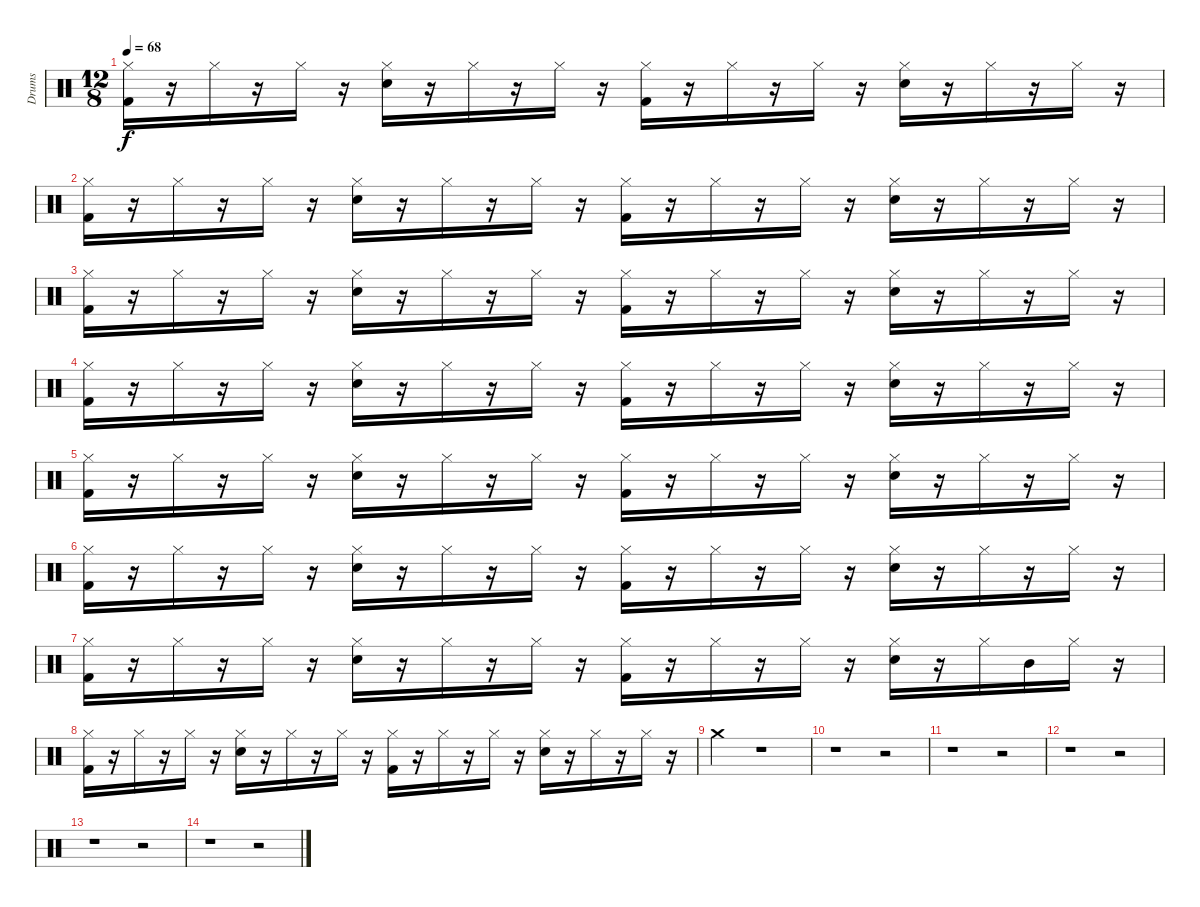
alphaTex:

\track ("Drums" "Drums") {instrument percussion}
\staff {score}
\articulation defaults
\ts (12 8)
\tempo 68
\clef neutral
\ks c
("Hi-Hat (closed)" "Kick (hit) 2").16{dy f} r.16 "Hi-Hat (closed)".16 r.16 "Hi-Hat (closed)".16 r.16 ("Hi-Hat (closed)" "Snare (hit) 2").16 r.16 "Hi-Hat (closed)".16 r.16 "Hi-Hat (closed)".16 r.16 ("Hi-Hat (closed)" "Kick (hit) 2").16 r.16 "Hi-Hat (closed)".16 r.16 "Hi-Hat (closed)".16 r.16 ("Hi-Hat (closed)" "Snare (hit) 2").16 r.16 "Hi-Hat (closed)".16 r.16 "Hi-Hat (closed)".16 r.16 |
("Hi-Hat (closed)" "Kick (hit) 2").16 r.16 "Hi-Hat (closed)".16 r.16 "Hi-Hat (closed)".16 r.16 ("Hi-Hat (closed)" "Snare (hit) 2").16 r.16 "Hi-Hat (closed)".16 r.16 "Hi-Hat (closed)".16 r.16 ("Hi-Hat (closed)" "Kick (hit) 2").16 r.16 "Hi-Hat (closed)".16 r.16 "Hi-Hat (closed)".16 r.16 ("Hi-Hat (closed)" "Snare (hit) 2").16 r.16 "Hi-Hat (closed)".16 r.16 "Hi-Hat (closed)".16 r.16 |
("Hi-Hat (closed)" "Kick (hit) 2").16 r.16 "Hi-Hat (closed)".16 r.16 "Hi-Hat (closed)".16 r.16 ("Hi-Hat (closed)" "Snare (hit) 2").16 r.16 "Hi-Hat (closed)".16 r.16 "Hi-Hat (closed)".16 r.16 ("Hi-Hat (closed)" "Kick (hit) 2").16 r.16 "Hi-Hat (closed)".16 r.16 "Hi-Hat (closed)".16 r.16 ("Hi-Hat (closed)" "Snare (hit) 2").16 r.16 "Hi-Hat (closed)".16 r.16 "Hi-Hat (closed)".16 r.16 |
("Hi-Hat (closed)" "Kick (hit) 2").16 r.16 "Hi-Hat (closed)".16 r.16 "Hi-Hat (closed)".16 r.16 ("Hi-Hat (closed)" "Snare (hit) 2").16 r.16 "Hi-Hat (closed)".16 r.16 "Hi-Hat (closed)".16 r.16 ("Hi-Hat (closed)" "Kick (hit) 2").16 r.16 "Hi-Hat (closed)".16 r.16 "Hi-Hat (closed)".16 r.16 ("Hi-Hat (closed)" "Snare (hit) 2").16 r.16 "Hi-Hat (closed)".16 r.16 "Hi-Hat (closed)".16 r.16 |
("Hi-Hat (closed)" "Kick (hit) 2").16 r.16 "Hi-Hat (closed)".16 r.16 "Hi-Hat (closed)".16 r.16 ("Hi-Hat (closed)" "Snare (hit) 2").16 r.16 "Hi-Hat (closed)".16 r.16 "Hi-Hat (closed)".16 r.16 ("Hi-Hat (closed)" "Kick (hit) 2").16 r.16 "Hi-Hat (closed)".16 r.16 "Hi-Hat (closed)".16 r.16 ("Hi-Hat (closed)" "Snare (hit) 2").16 r.16 "Hi-Hat (closed)".16 r.16 "Hi-Hat (closed)".16 r.16 |
("Hi-Hat (closed)" "Kick (hit) 2").16 r.16 "Hi-Hat (closed)".16 r.16 "Hi-Hat (closed)".16 r.16 ("Hi-Hat (closed)" "Snare (hit) 2").16 r.16 "Hi-Hat (closed)".16 r.16 "Hi-Hat (closed)".16 r.16 ("Hi-Hat (closed)" "Kick (hit) 2").16 r.16 "Hi-Hat (closed)".16 r.16 "Hi-Hat (closed)".16 r.16 ("Hi-Hat (closed)" "Snare (hit) 2").16 r.16 "Hi-Hat (closed)".16 r.16 "Hi-Hat (closed)".16 r.16 |
("Hi-Hat (closed)" "Kick (hit) 2").16 r.16 "Hi-Hat (closed)".16 r.16 "Hi-Hat (closed)".16 r.16 ("Hi-Hat (closed)" "Snare (hit) 2").16 r.16 "Hi-Hat (closed)".16 r.16 "Hi-Hat (closed)".16 r.16 ("Hi-Hat (closed)" "Kick (hit) 2").16 r.16 "Hi-Hat (closed)".16 r.16 "Hi-Hat (closed)".16 r.16 ("Hi-Hat (closed)" "Snare (hit) 2").16 r.16 "Hi-Hat (closed)".16 "Mid Tom (hit)".16 "Hi-Hat (closed)".16 r.16 |
("Hi-Hat (closed)" "Kick (hit) 2").16 r.16 "Hi-Hat (closed)".16 r.16 "Hi-Hat (closed)".16 r.16 ("Hi-Hat (closed)" "Snare (hit) 2").16 r.16 "Hi-Hat (closed)".16 r.16 "Hi-Hat (closed)".16 r.16 ("Hi-Hat (closed)" "Kick (hit) 2").16 r.16 "Hi-Hat (closed)".16 r.16 "Hi-Hat (closed)".16 r.16 ("Hi-Hat (closed)" "Snare (hit) 2").16 r.16 "Hi-Hat (closed)".16 r.16 "Hi-Hat (closed)".16 r.16 |
"Crash medium (hit)".2 r.1 |
r.1 r.2 |
r.1 r.2 |
r.1 r.2 |
r.1 r.2 |
r.1 r.2
